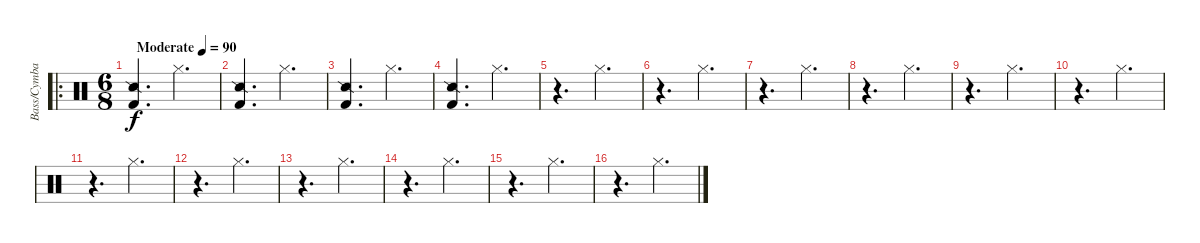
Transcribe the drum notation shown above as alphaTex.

\track ("Bass/Cymbal" "Bass/Cymba") {instrument percussion}
\staff {score}
\articulation defaults
\ro
\ts (6 8)
\tempo (90 "Moderate")
\clef neutral
\ks c
("Kick (hit) 2" "Snare (side stick) 2").4{d dy f} "Hi-Hat (closed)".4{d} |
("Kick (hit) 2" "Snare (side stick) 2").4{d} "Hi-Hat (closed)".4{d} |
("Kick (hit) 2" "Snare (side stick) 2").4{d} "Hi-Hat (closed)".4{d} |
("Kick (hit) 2" "Snare (side stick) 2").4{d} "Hi-Hat (closed)".4{d} |
r.4{d} "Hi-Hat (closed)".4{d} |
r.4{d} "Hi-Hat (closed)".4{d} |
r.4{d} "Hi-Hat (closed)".4{d} |
r.4{d} "Hi-Hat (closed)".4{d} |
r.4{d} "Hi-Hat (closed)".4{d} |
r.4{d} "Hi-Hat (closed)".4{d} |
r.4{d} "Hi-Hat (closed)".4{d} |
r.4{d} "Hi-Hat (closed)".4{d} |
r.4{d} "Hi-Hat (closed)".4{d} |
r.4{d} "Hi-Hat (closed)".4{d} |
r.4{d} "Hi-Hat (closed)".4{d} |
r.4{d} "Hi-Hat (closed)".4{d}
